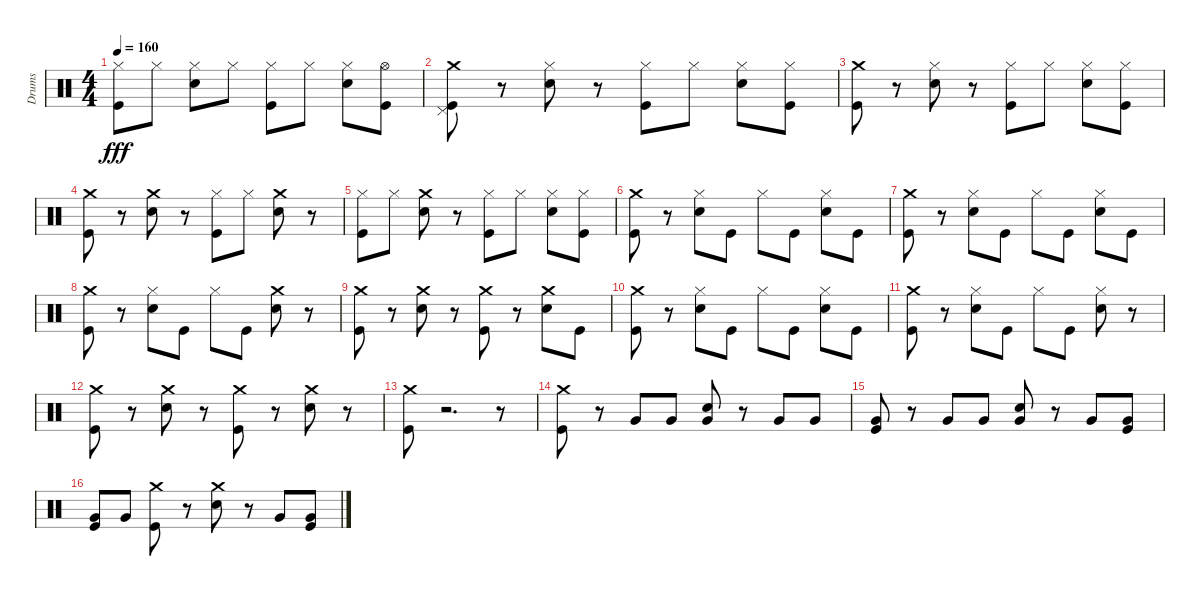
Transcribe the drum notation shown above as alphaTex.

\track ("Drums" "Drums") {instrument percussion}
\staff {score}
\articulation defaults
\ts (4 4)
\tempo 160
\clef neutral
\ks c
("Hi-Hat (closed)" "Kick (hit)").8{dy fff} "Hi-Hat (closed)".8 ("Snare (hit) 2" "Hi-Hat (closed)").8 "Hi-Hat (closed)".8 ("Kick (hit)" "Hi-Hat (closed)").8 "Hi-Hat (closed)".8 ("Snare (hit) 2" "Hi-Hat (closed)").8 ("Hi-Hat (open)" "Kick (hit)").8 |
("Pedal Hi-Hat (hit)" "Crash medium (hit)" "Kick (hit)").8 r.8 ("Hi-Hat (closed)" "Snare (hit) 2").8 r.8 ("Kick (hit)" "Hi-Hat (closed)").8 "Hi-Hat (closed)".8 ("Snare (hit) 2" "Hi-Hat (closed)").8 ("Kick (hit)" "Hi-Hat (closed)").8 |
("Crash medium (hit)" "Kick (hit)").8 r.8 ("Hi-Hat (closed)" "Snare (hit) 2").8 r.8 ("Kick (hit)" "Hi-Hat (closed)").8 "Hi-Hat (closed)".8 ("Snare (hit) 2" "Hi-Hat (closed)").8 ("Kick (hit)" "Hi-Hat (closed)").8 |
("Crash medium (hit)" "Kick (hit)").8 r.8 ("Crash medium (hit)" "Snare (hit) 2").8 r.8 ("Kick (hit)" "Hi-Hat (closed)").8 "Hi-Hat (closed)".8 ("Crash medium (hit)" "Snare (hit) 2").8 r.8 |
("Hi-Hat (closed)" "Kick (hit)").8 "Hi-Hat (closed)".8 ("Crash medium (hit)" "Snare (hit) 2").8 r.8 ("Kick (hit)" "Hi-Hat (closed)").8 "Hi-Hat (closed)".8 ("Snare (hit) 2" "Hi-Hat (closed)").8 ("Kick (hit)" "Hi-Hat (closed)").8 |
("Crash medium (hit)" "Kick (hit)").8 r.8 ("Hi-Hat (closed)" "Snare (hit) 2").8 "Kick (hit)".8 "Hi-Hat (closed)".8 "Kick (hit)".8 ("Hi-Hat (closed)" "Snare (hit) 2").8 "Kick (hit)".8 |
("Crash medium (hit)" "Kick (hit)").8 r.8 ("Hi-Hat (closed)" "Snare (hit) 2").8 "Kick (hit)".8 "Hi-Hat (closed)".8 "Kick (hit)".8 ("Snare (hit) 2" "Hi-Hat (closed)").8 "Kick (hit)".8 |
("Crash medium (hit)" "Kick (hit)").8 r.8 ("Hi-Hat (closed)" "Snare (hit) 2").8 "Kick (hit)".8 "Hi-Hat (closed)".8 "Kick (hit)".8 ("Crash medium (hit)" "Snare (hit) 2").8 r.8 |
("Kick (hit)" "Crash medium (hit)").8 r.8 ("Snare (hit) 2" "Crash medium (hit)").8 r.8 ("Kick (hit)" "Crash medium (hit)").8 r.8 ("Snare (hit) 2" "Crash medium (hit)").8 "Kick (hit)".8 |
("Crash medium (hit)" "Kick (hit)").8 r.8 ("Hi-Hat (closed)" "Snare (hit) 2").8 "Kick (hit)".8 "Hi-Hat (closed)".8 "Kick (hit)".8 ("Snare (hit) 2" "Hi-Hat (closed)").8 "Kick (hit)".8 |
("Crash medium (hit)" "Kick (hit)").8 r.8 ("Hi-Hat (closed)" "Snare (hit) 2").8 "Kick (hit)".8 "Hi-Hat (closed)".8 "Kick (hit)".8 ("Snare (hit) 2" "Hi-Hat (closed)").8 r.8 |
("Crash medium (hit)" "Kick (hit)").8 r.8 ("Snare (hit) 2" "Crash medium (hit)").8 r.8 ("Kick (hit)" "Crash medium (hit)").8 r.8 ("Snare (hit) 2" "Crash medium (hit)").8 r.8 |
("Kick (hit)" "Crash medium (hit)").8 r.2{d} r.8 |
("Crash medium (hit)" "Kick (hit)").8 r.8 "Very Low Tom (hit)".8 "Very Low Tom (hit)".8 ("Very Low Tom (hit)" "Snare (hit) 2").8 r.8 "Very Low Tom (hit)".8 "Very Low Tom (hit)".8 |
("Kick (hit)" "Very Low Tom (hit)").8 r.8 "Very Low Tom (hit)".8 "Very Low Tom (hit)".8 ("Very Low Tom (hit)" "Snare (hit) 2").8 r.8 "Very Low Tom (hit)".8 ("Kick (hit)" "Very Low Tom (hit)").8 |
("Very Low Tom (hit)" "Kick (hit)").8 "Very Low Tom (hit)".8 ("Crash medium (hit)" "Kick (hit)").8 r.8 ("Snare (hit) 2" "Crash medium (hit)").8 r.8 "Very Low Tom (hit)".8 ("Kick (hit)" "Very Low Tom (hit)").8
